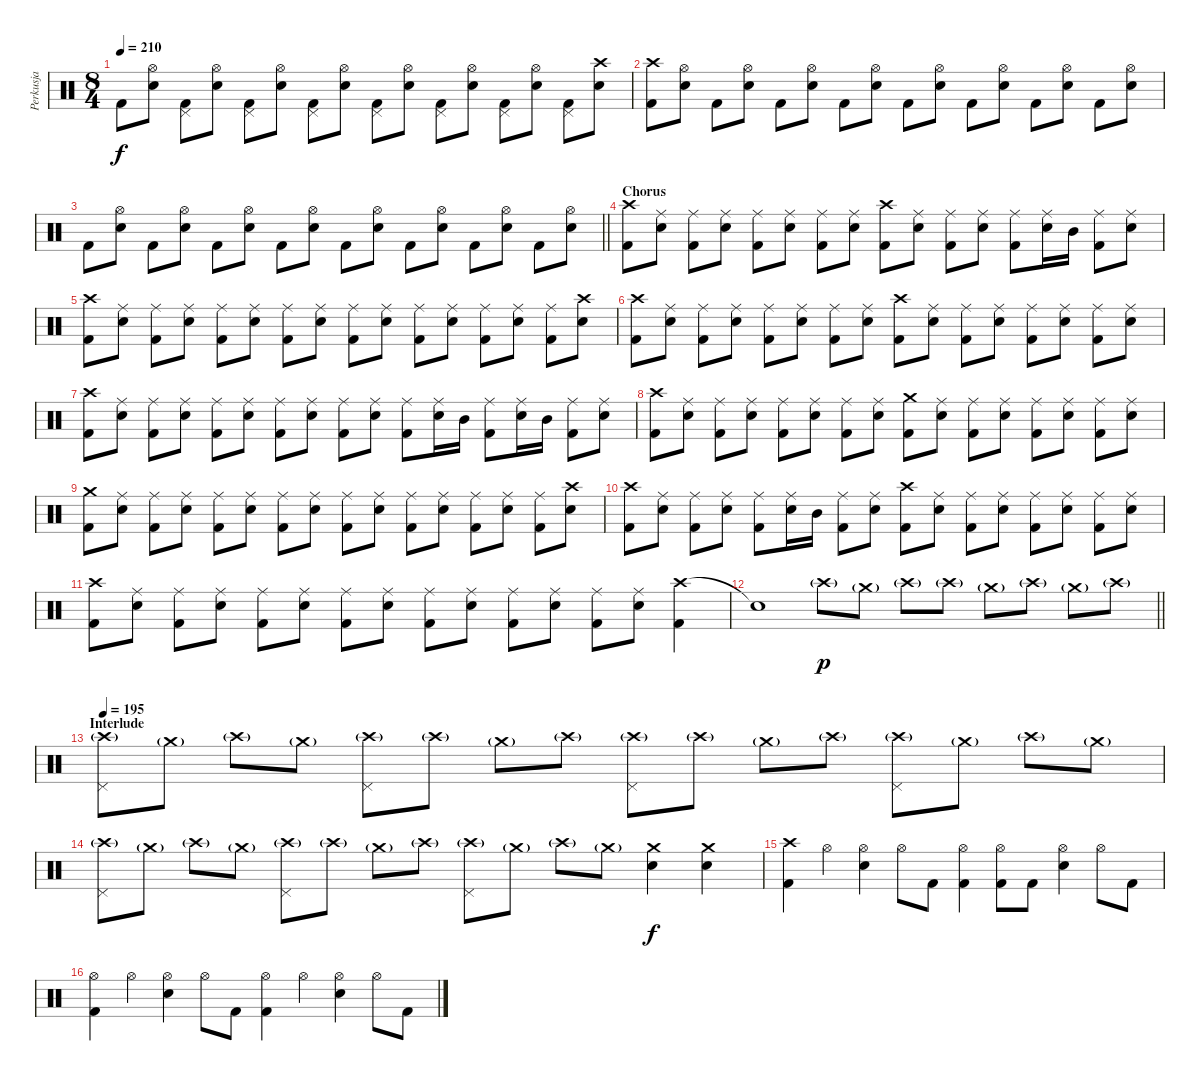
\track ("Perkusja" "Perkusja") {instrument percussion}
\staff {score}
\articulation defaults
\ts (8 4)
\tempo 210
\clef neutral
\ks c "Kick (hit) 2".8{dy f}
("Hi-Hat (open)" "Snare (hit) 2").8 ("Pedal Hi-Hat (hit)" "Kick (hit) 2").8 ("Hi-Hat (open)" "Snare (hit) 2").8 ("Pedal Hi-Hat (hit)" "Kick (hit) 2").8 ("Hi-Hat (open)" "Snare (hit) 2").8 ("Pedal Hi-Hat (hit)" "Kick (hit) 2").8 ("Hi-Hat (open)" "Snare (hit) 2").8 ("Pedal Hi-Hat (hit)" "Kick (hit) 2").8 ("Hi-Hat (open)" "Snare (hit) 2").8 ("Pedal Hi-Hat (hit)" "Kick (hit) 2").8 ("Hi-Hat (open)" "Snare (hit) 2").8 ("Pedal Hi-Hat (hit)" "Kick (hit) 2").8 ("Hi-Hat (open)" "Snare (hit) 2").8 ("Pedal Hi-Hat (hit)" "Kick (hit) 2").8 ("Crash high (hit)" "Snare (hit) 2").8 |
("Crash high (hit)" "Kick (hit) 2").8 ("Hi-Hat (open)" "Snare (hit) 2").8 "Kick (hit) 2".8 ("Hi-Hat (open)" "Snare (hit) 2").8 "Kick (hit) 2".8 ("Hi-Hat (open)" "Snare (hit) 2").8 "Kick (hit) 2".8 ("Hi-Hat (open)" "Snare (hit) 2").8 "Kick (hit) 2".8 ("Hi-Hat (open)" "Snare (hit) 2").8 "Kick (hit) 2".8 ("Hi-Hat (open)" "Snare (hit) 2").8 "Kick (hit) 2".8 ("Hi-Hat (open)" "Snare (hit) 2").8 "Kick (hit) 2".8 ("Hi-Hat (open)" "Snare (hit) 2").8 |
\barLineRight lightlight "Kick (hit) 2".8
("Hi-Hat (open)" "Snare (hit) 2").8 "Kick (hit) 2".8 ("Hi-Hat (open)" "Snare (hit) 2").8 "Kick (hit) 2".8 ("Hi-Hat (open)" "Snare (hit) 2").8 "Kick (hit) 2".8 ("Hi-Hat (open)" "Snare (hit) 2").8 "Kick (hit) 2".8 ("Hi-Hat (open)" "Snare (hit) 2").8 "Kick (hit) 2".8 ("Hi-Hat (open)" "Snare (hit) 2").8 "Kick (hit) 2".8 ("Hi-Hat (open)" "Snare (hit) 2").8 "Kick (hit) 2".8 ("Hi-Hat (open)" "Snare (hit) 2").8 |
\section ("" "Chorus")
("Crash high (hit)" "Kick (hit) 2").8 ("Ride (middle)" "Snare (hit) 2").8 ("Ride (middle)" "Kick (hit) 2").8 ("Ride (middle)" "Snare (hit) 2").8 ("Ride (middle)" "Kick (hit) 2").8 ("Ride (middle)" "Snare (hit) 2").8 ("Ride (middle)" "Kick (hit) 2").8 ("Ride (middle)" "Snare (hit) 2").8 ("Crash high (hit)" "Kick (hit) 2").8 ("Ride (middle)" "Snare (hit) 2").8 ("Ride (middle)" "Kick (hit) 2").8 ("Ride (middle)" "Snare (hit) 2").8 ("Ride (middle)" "Kick (hit) 2").8 ("Ride (middle)" "Snare (hit) 2").16 "Mid Tom (hit)".16 ("Ride (middle)" "Kick (hit) 2").8 ("Ride (middle)" "Snare (hit) 2").8 |
("Crash high (hit)" "Kick (hit) 2").8 ("Ride (middle)" "Snare (hit) 2").8 ("Ride (middle)" "Kick (hit) 2").8 ("Ride (middle)" "Snare (hit) 2").8 ("Ride (middle)" "Kick (hit) 2").8 ("Ride (middle)" "Snare (hit) 2").8 ("Ride (middle)" "Kick (hit) 2").8 ("Ride (middle)" "Snare (hit) 2").8 ("Ride (middle)" "Kick (hit) 2").8 ("Ride (middle)" "Snare (hit) 2").8 ("Ride (middle)" "Kick (hit) 2").8 ("Ride (middle)" "Snare (hit) 2").8 ("Ride (middle)" "Kick (hit) 2").8 ("Ride (middle)" "Snare (hit) 2").8 ("Ride (middle)" "Kick (hit) 2").8 ("Crash high (hit)" "Snare (hit) 2").8 |
("Crash high (hit)" "Kick (hit) 2").8 ("Ride (middle)" "Snare (hit) 2").8 ("Ride (middle)" "Kick (hit) 2").8 ("Ride (middle)" "Snare (hit) 2").8 ("Ride (middle)" "Kick (hit) 2").8 ("Ride (middle)" "Snare (hit) 2").8 ("Ride (middle)" "Kick (hit) 2").8 ("Ride (middle)" "Snare (hit) 2").8 ("Crash high (hit)" "Kick (hit) 2").8 ("Ride (middle)" "Snare (hit) 2").8 ("Ride (middle)" "Kick (hit) 2").8 ("Ride (middle)" "Snare (hit) 2").8 ("Ride (middle)" "Kick (hit) 2").8 ("Ride (middle)" "Snare (hit) 2").8 ("Ride (middle)" "Kick (hit) 2").8 ("Ride (middle)" "Snare (hit) 2").8 |
("Crash high (hit)" "Kick (hit) 2").8 ("Ride (middle)" "Snare (hit) 2").8 ("Ride (middle)" "Kick (hit) 2").8 ("Ride (middle)" "Snare (hit) 2").8 ("Ride (middle)" "Kick (hit) 2").8 ("Ride (middle)" "Snare (hit) 2").8 ("Ride (middle)" "Kick (hit) 2").8 ("Ride (middle)" "Snare (hit) 2").8 ("Ride (middle)" "Kick (hit) 2").8 ("Ride (middle)" "Snare (hit) 2").8 ("Ride (middle)" "Kick (hit) 2").8 ("Ride (middle)" "Snare (hit) 2").16 "Mid Tom (hit)".16 ("Ride (middle)" "Kick (hit) 2").8 ("Ride (middle)" "Snare (hit) 2").16 "Mid Tom (hit)".16 ("Ride (middle)" "Kick (hit) 2").8 ("Ride (middle)" "Snare (hit) 2").8 |
("Crash high (hit)" "Kick (hit) 2").8 ("Ride (middle)" "Snare (hit) 2").8 ("Ride (middle)" "Kick (hit) 2").8 ("Ride (middle)" "Snare (hit) 2").8 ("Ride (middle)" "Kick (hit) 2").8 ("Ride (middle)" "Snare (hit) 2").8 ("Ride (middle)" "Kick (hit) 2").8 ("Ride (middle)" "Snare (hit) 2").8 ("Crash medium (hit)" "Kick (hit) 2").8 ("Ride (middle)" "Snare (hit) 2").8 ("Ride (middle)" "Kick (hit) 2").8 ("Ride (middle)" "Snare (hit) 2").8 ("Ride (middle)" "Kick (hit) 2").8 ("Ride (middle)" "Snare (hit) 2").8 ("Ride (middle)" "Kick (hit) 2").8 ("Ride (middle)" "Snare (hit) 2").8 |
("Crash medium (hit)" "Kick (hit) 2").8 ("Ride (middle)" "Snare (hit) 2").8 ("Ride (middle)" "Kick (hit) 2").8 ("Ride (middle)" "Snare (hit) 2").8 ("Ride (middle)" "Kick (hit) 2").8 ("Ride (middle)" "Snare (hit) 2").8 ("Ride (middle)" "Kick (hit) 2").8 ("Ride (middle)" "Snare (hit) 2").8 ("Ride (middle)" "Kick (hit) 2").8 ("Ride (middle)" "Snare (hit) 2").8 ("Ride (middle)" "Kick (hit) 2").8 ("Ride (middle)" "Snare (hit) 2").8 ("Ride (middle)" "Kick (hit) 2").8 ("Ride (middle)" "Snare (hit) 2").8 ("Ride (middle)" "Kick (hit) 2").8 ("Crash high (hit)" "Snare (hit) 2").8 |
("Crash high (hit)" "Kick (hit) 2").8 ("Ride (middle)" "Snare (hit) 2").8 ("Ride (middle)" "Kick (hit) 2").8 ("Ride (middle)" "Snare (hit) 2").8 ("Ride (middle)" "Kick (hit) 2").8 ("Ride (middle)" "Snare (hit) 2").16 "Mid Tom (hit)".16 ("Ride (middle)" "Kick (hit) 2").8 ("Ride (middle)" "Snare (hit) 2").8 ("Crash high (hit)" "Kick (hit) 2").8 ("Ride (middle)" "Snare (hit) 2").8 ("Ride (middle)" "Kick (hit) 2").8 ("Ride (middle)" "Snare (hit) 2").8 ("Ride (middle)" "Kick (hit) 2").8 ("Ride (middle)" "Snare (hit) 2").8 ("Ride (middle)" "Kick (hit) 2").8 ("Ride (middle)" "Snare (hit) 2").8 |
("Crash high (hit)" "Kick (hit) 2").8 ("Ride (middle)" "Snare (hit) 2").8 ("Ride (middle)" "Kick (hit) 2").8 ("Ride (middle)" "Snare (hit) 2").8 ("Ride (middle)" "Kick (hit) 2").8 ("Ride (middle)" "Snare (hit) 2").8 ("Ride (middle)" "Kick (hit) 2").8 ("Ride (middle)" "Snare (hit) 2").8 ("Ride (middle)" "Kick (hit) 2").8 ("Ride (middle)" "Snare (hit) 2").8 ("Ride (middle)" "Kick (hit) 2").8 ("Ride (middle)" "Snare (hit) 2").8 ("Ride (middle)" "Kick (hit) 2").8 ("Ride (middle)" "Snare (hit) 2").8 ("Crash high (hit)" "Kick (hit) 2").4 |
\barLineRight lightlight "Snare (hit)"{t}.1 "Crash high (hit)"{g}.8{dy p} "Crash medium (hit)"{g}.8 "Crash high (hit)"{g}.8 "Crash high (hit)"{g}.8 "Crash medium (hit)"{g}.8 "Crash high (hit)"{g}.8 "Crash medium (hit)"{g}.8 "Crash high (hit)"{g}.8
|
\section ("" "Interlude")
\tempo 195
("Crash high (hit)"{g} "Pedal Hi-Hat (hit)").8 "Crash medium (hit)"{g}.8 "Crash high (hit)"{g}.8 "Crash medium (hit)"{g}.8 ("Crash high (hit)"{g} "Pedal Hi-Hat (hit)").8 "Crash high (hit)"{g}.8 "Crash medium (hit)"{g}.8 "Crash high (hit)"{g}.8 ("Crash high (hit)"{g} "Pedal Hi-Hat (hit)").8 "Crash high (hit)"{g}.8 "Crash medium (hit)"{g}.8 "Crash high (hit)"{g}.8 ("Crash high (hit)"{g} "Pedal Hi-Hat (hit)").8 "Crash medium (hit)"{g}.8 "Crash high (hit)"{g}.8 "Crash medium (hit)"{g}.8 |
("Crash high (hit)"{g} "Pedal Hi-Hat (hit)").8 "Crash medium (hit)"{g}.8 "Crash high (hit)"{g}.8 "Crash medium (hit)"{g}.8 ("Crash high (hit)"{g} "Pedal Hi-Hat (hit)").8 "Crash high (hit)"{g}.8 "Crash medium (hit)"{g}.8 "Crash high (hit)"{g}.8 ("Crash high (hit)"{g} "Pedal Hi-Hat (hit)").8 "Crash medium (hit)"{g}.8 "Crash high (hit)"{g}.8 "Crash medium (hit)"{g}.8 ("Crash medium (hit)" "Snare (hit) 2").4{dy f} ("Crash medium (hit)" "Snare (hit) 2").4 |
("Crash high (hit)" "Kick (hit) 2").4 "Hi-Hat (open)".4 ("Hi-Hat (open)" "Snare (hit) 2").4 "Hi-Hat (open)".8 "Kick (hit) 2".8 ("Hi-Hat (open)" "Kick (hit) 2").4 ("Hi-Hat (open)" "Kick (hit) 2").8 "Kick (hit) 2".8 ("Hi-Hat (open)" "Snare (hit) 2").4 "Hi-Hat (open)".8 "Kick (hit) 2".8 |
("Hi-Hat (open)" "Kick (hit) 2").4 "Hi-Hat (open)".4 ("Hi-Hat (open)" "Snare (hit) 2").4 "Hi-Hat (open)".8 "Kick (hit) 2".8 ("Hi-Hat (open)" "Kick (hit) 2").4 "Hi-Hat (open)".4 ("Hi-Hat (open)" "Snare (hit) 2").4 "Hi-Hat (open)".8 "Kick (hit) 2".8
